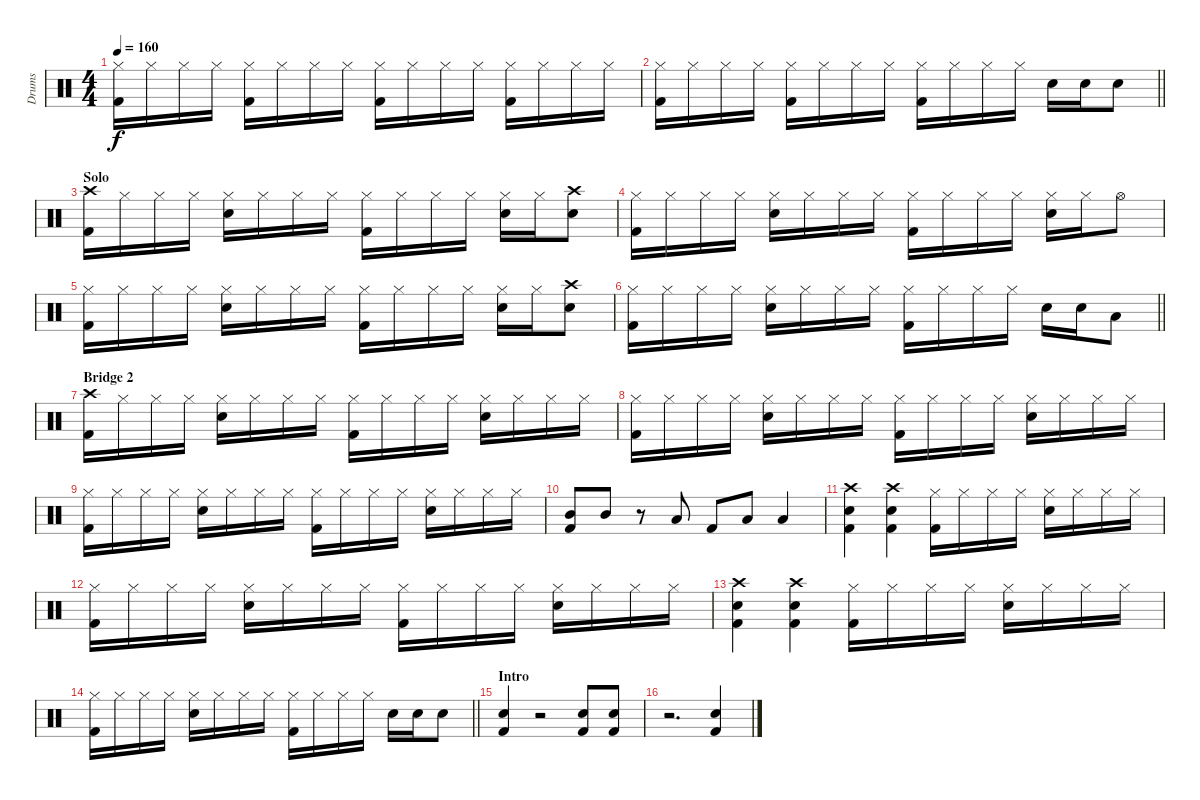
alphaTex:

\track ("Drums" "Drums") {instrument percussion}
\staff {score}
\articulation defaults
\ts (4 4)
\tempo 160
\clef neutral
\ks c
("Hi-Hat (closed)" "Kick (hit) 2").16{dy f} "Hi-Hat (closed)".16 "Hi-Hat (closed)".16 "Hi-Hat (closed)".16 ("Hi-Hat (closed)" "Kick (hit) 2").16 "Hi-Hat (closed)".16 "Hi-Hat (closed)".16 "Hi-Hat (closed)".16 ("Hi-Hat (closed)" "Kick (hit) 2").16 "Hi-Hat (closed)".16 "Hi-Hat (closed)".16 "Hi-Hat (closed)".16 ("Hi-Hat (closed)" "Kick (hit) 2").16 "Hi-Hat (closed)".16 "Hi-Hat (closed)".16 "Hi-Hat (closed)".16 |
\barLineRight lightlight
("Hi-Hat (closed)" "Kick (hit) 2").16 "Hi-Hat (closed)".16 "Hi-Hat (closed)".16 "Hi-Hat (closed)".16 ("Hi-Hat (closed)" "Kick (hit) 2").16 "Hi-Hat (closed)".16 "Hi-Hat (closed)".16 "Hi-Hat (closed)".16 ("Hi-Hat (closed)" "Kick (hit) 2").16 "Hi-Hat (closed)".16 "Hi-Hat (closed)".16 "Hi-Hat (closed)".16 "Snare (hit) 2".16 "Snare (hit) 2".16 "Snare (hit) 2".8 |
\section ("" "Solo")
("Crash high (hit)" "Kick (hit) 2").16 "Hi-Hat (closed)".16 "Hi-Hat (closed)".16 "Hi-Hat (closed)".16 ("Hi-Hat (closed)" "Snare (hit) 2").16 "Hi-Hat (closed)".16 "Hi-Hat (closed)".16 "Hi-Hat (closed)".16 ("Hi-Hat (closed)" "Kick (hit) 2").16 "Hi-Hat (closed)".16 "Hi-Hat (closed)".16 "Hi-Hat (closed)".16 ("Hi-Hat (closed)" "Snare (hit) 2").16 "Hi-Hat (closed)".16 ("Crash high (hit)" "Snare (hit) 2").8 |
("Hi-Hat (closed)" "Kick (hit) 2").16 "Hi-Hat (closed)".16 "Hi-Hat (closed)".16 "Hi-Hat (closed)".16 ("Hi-Hat (closed)" "Snare (hit) 2").16 "Hi-Hat (closed)".16 "Hi-Hat (closed)".16 "Hi-Hat (closed)".16 ("Hi-Hat (closed)" "Kick (hit) 2").16 "Hi-Hat (closed)".16 "Hi-Hat (closed)".16 "Hi-Hat (closed)".16 ("Hi-Hat (closed)" "Snare (hit) 2").16 "Hi-Hat (closed)".16 "Hi-Hat (open)".8 |
("Hi-Hat (closed)" "Kick (hit) 2").16 "Hi-Hat (closed)".16 "Hi-Hat (closed)".16 "Hi-Hat (closed)".16 ("Hi-Hat (closed)" "Snare (hit) 2").16 "Hi-Hat (closed)".16 "Hi-Hat (closed)".16 "Hi-Hat (closed)".16 ("Hi-Hat (closed)" "Kick (hit) 2").16 "Hi-Hat (closed)".16 "Hi-Hat (closed)".16 "Hi-Hat (closed)".16 ("Hi-Hat (closed)" "Snare (hit) 2").16 "Hi-Hat (closed)".16 ("Crash high (hit)" "Snare (hit) 2").8 |
\barLineRight lightlight
("Hi-Hat (closed)" "Kick (hit) 2").16 "Hi-Hat (closed)".16 "Hi-Hat (closed)".16 "Hi-Hat (closed)".16 ("Hi-Hat (closed)" "Snare (hit) 2").16 "Hi-Hat (closed)".16 "Hi-Hat (closed)".16 "Hi-Hat (closed)".16 ("Hi-Hat (closed)" "Kick (hit) 2").16 "Hi-Hat (closed)".16 "Hi-Hat (closed)".16 "Hi-Hat (closed)".16 "Snare (hit) 2".16 "Snare (hit) 2".16 "Low Tom (hit)".8 |
\section ("" "Bridge 2")
("Crash high (hit)" "Kick (hit) 2").16 "Hi-Hat (closed)".16 "Hi-Hat (closed)".16 "Hi-Hat (closed)".16 ("Hi-Hat (closed)" "Snare (hit) 2").16 "Hi-Hat (closed)".16 "Hi-Hat (closed)".16 "Hi-Hat (closed)".16 ("Hi-Hat (closed)" "Kick (hit) 2").16 "Hi-Hat (closed)".16 "Hi-Hat (closed)".16 "Hi-Hat (closed)".16 ("Hi-Hat (closed)" "Snare (hit) 2").16 "Hi-Hat (closed)".16 "Hi-Hat (closed)".16 "Hi-Hat (closed)".16 |
("Hi-Hat (closed)" "Kick (hit) 2").16 "Hi-Hat (closed)".16 "Hi-Hat (closed)".16 "Hi-Hat (closed)".16 ("Hi-Hat (closed)" "Snare (hit) 2").16 "Hi-Hat (closed)".16 "Hi-Hat (closed)".16 "Hi-Hat (closed)".16 ("Hi-Hat (closed)" "Kick (hit) 2").16 "Hi-Hat (closed)".16 "Hi-Hat (closed)".16 "Hi-Hat (closed)".16 ("Hi-Hat (closed)" "Snare (hit) 2").16 "Hi-Hat (closed)".16 "Hi-Hat (closed)".16 "Hi-Hat (closed)".16 |
("Hi-Hat (closed)" "Kick (hit) 2").16 "Hi-Hat (closed)".16 "Hi-Hat (closed)".16 "Hi-Hat (closed)".16 ("Hi-Hat (closed)" "Snare (hit) 2").16 "Hi-Hat (closed)".16 "Hi-Hat (closed)".16 "Hi-Hat (closed)".16 ("Hi-Hat (closed)" "Kick (hit) 2").16 "Hi-Hat (closed)".16 "Hi-Hat (closed)".16 "Hi-Hat (closed)".16 ("Hi-Hat (closed)" "Snare (hit) 2").16 "Hi-Hat (closed)".16 "Hi-Hat (closed)".16 "Hi-Hat (closed)".16 |
("Mid Tom (hit)" "Kick (hit) 2").8 "Mid Tom (hit)".8 r.8 "Low Tom (hit)".8 "Kick (hit) 2".8 "Low Tom (hit)".8 "Low Tom (hit)".4 |
("Crash high (hit)" "Snare (hit) 2" "Kick (hit) 2").4 ("Crash high (hit)" "Snare (hit) 2" "Kick (hit) 2").4 ("Hi-Hat (closed)" "Kick (hit) 2").16 "Hi-Hat (closed)".16 "Hi-Hat (closed)".16 "Hi-Hat (closed)".16 ("Hi-Hat (closed)" "Snare (hit) 2").16 "Hi-Hat (closed)".16 "Hi-Hat (closed)".16 "Hi-Hat (closed)".16 |
("Hi-Hat (closed)" "Kick (hit) 2").16 "Hi-Hat (closed)".16 "Hi-Hat (closed)".16 "Hi-Hat (closed)".16 ("Hi-Hat (closed)" "Snare (hit) 2").16 "Hi-Hat (closed)".16 "Hi-Hat (closed)".16 "Hi-Hat (closed)".16 ("Hi-Hat (closed)" "Kick (hit) 2").16 "Hi-Hat (closed)".16 "Hi-Hat (closed)".16 "Hi-Hat (closed)".16 ("Hi-Hat (closed)" "Snare (hit) 2").16 "Hi-Hat (closed)".16 "Hi-Hat (closed)".16 "Hi-Hat (closed)".16 |
("Crash high (hit)" "Snare (hit) 2" "Kick (hit) 2").4 ("Crash high (hit)" "Snare (hit) 2" "Kick (hit) 2").4 ("Hi-Hat (closed)" "Kick (hit) 2").16 "Hi-Hat (closed)".16 "Hi-Hat (closed)".16 "Hi-Hat (closed)".16 ("Hi-Hat (closed)" "Snare (hit) 2").16 "Hi-Hat (closed)".16 "Hi-Hat (closed)".16 "Hi-Hat (closed)".16 |
\barLineRight lightlight
("Hi-Hat (closed)" "Kick (hit) 2").16 "Hi-Hat (closed)".16 "Hi-Hat (closed)".16 "Hi-Hat (closed)".16 ("Hi-Hat (closed)" "Snare (hit) 2").16 "Hi-Hat (closed)".16 "Hi-Hat (closed)".16 "Hi-Hat (closed)".16 ("Hi-Hat (closed)" "Kick (hit) 2").16 "Hi-Hat (closed)".16 "Hi-Hat (closed)".16 "Hi-Hat (closed)".16 "Snare (hit) 2".16 "Snare (hit) 2".16 "Snare (hit) 2".8 |
\section ("" "Intro")
("Snare (hit) 2" "Kick (hit) 2").4 r.2 ("Snare (hit) 2" "Kick (hit) 2").8 ("Snare (hit) 2" "Kick (hit) 2").8 |
r.2{d} ("Snare (hit) 2" "Kick (hit) 2").4
